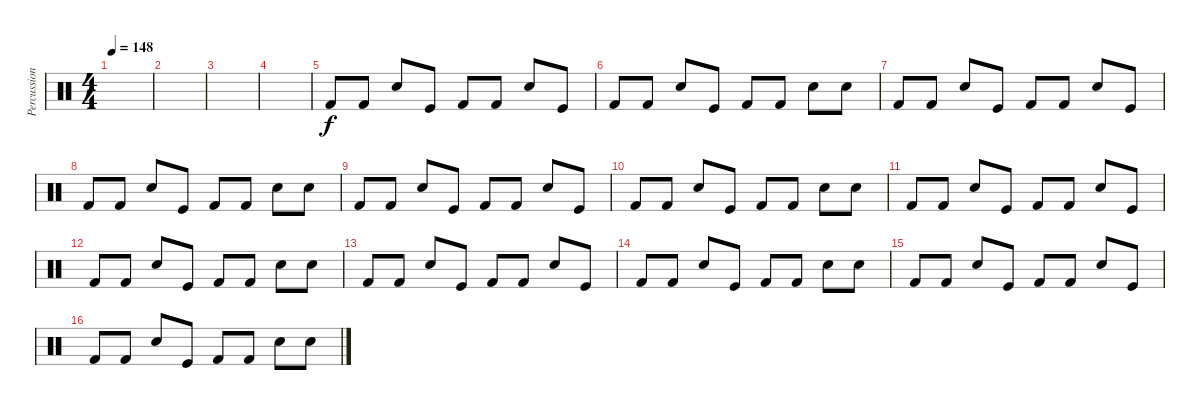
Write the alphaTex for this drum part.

\track ("Percussion" "Percussion") {instrument percussion}
\staff {score}
\articulation defaults
\ts (4 4)
\tempo 148
\clef neutral
\ks c
|
|
|
|
"Kick (hit) 2".8 "Kick (hit) 2".8 "Snare (hit) 2".8 "Kick (hit)".8 "Kick (hit) 2".8 "Kick (hit) 2".8 "Snare (hit) 2".8 "Kick (hit)".8 |
"Kick (hit) 2".8 "Kick (hit) 2".8 "Snare (hit) 2".8 "Kick (hit)".8 "Kick (hit) 2".8 "Kick (hit) 2".8 "Snare (hit) 2".8 "Snare (hit) 2".8 |
"Kick (hit) 2".8 "Kick (hit) 2".8 "Snare (hit) 2".8 "Kick (hit)".8 "Kick (hit) 2".8 "Kick (hit) 2".8 "Snare (hit) 2".8 "Kick (hit)".8 |
"Kick (hit) 2".8 "Kick (hit) 2".8 "Snare (hit) 2".8 "Kick (hit)".8 "Kick (hit) 2".8 "Kick (hit) 2".8 "Snare (hit) 2".8 "Snare (hit) 2".8 |
"Kick (hit) 2".8 "Kick (hit) 2".8 "Snare (hit) 2".8 "Kick (hit)".8 "Kick (hit) 2".8 "Kick (hit) 2".8 "Snare (hit) 2".8 "Kick (hit)".8 |
"Kick (hit) 2".8 "Kick (hit) 2".8 "Snare (hit) 2".8 "Kick (hit)".8 "Kick (hit) 2".8 "Kick (hit) 2".8 "Snare (hit) 2".8 "Snare (hit) 2".8 |
"Kick (hit) 2".8 "Kick (hit) 2".8 "Snare (hit) 2".8 "Kick (hit)".8 "Kick (hit) 2".8 "Kick (hit) 2".8 "Snare (hit) 2".8 "Kick (hit)".8 |
"Kick (hit) 2".8 "Kick (hit) 2".8 "Snare (hit) 2".8 "Kick (hit)".8 "Kick (hit) 2".8 "Kick (hit) 2".8 "Snare (hit) 2".8 "Snare (hit) 2".8 |
"Kick (hit) 2".8 "Kick (hit) 2".8 "Snare (hit) 2".8 "Kick (hit)".8 "Kick (hit) 2".8 "Kick (hit) 2".8 "Snare (hit) 2".8 "Kick (hit)".8 |
"Kick (hit) 2".8 "Kick (hit) 2".8 "Snare (hit) 2".8 "Kick (hit)".8 "Kick (hit) 2".8 "Kick (hit) 2".8 "Snare (hit) 2".8 "Snare (hit) 2".8 |
"Kick (hit) 2".8 "Kick (hit) 2".8 "Snare (hit) 2".8 "Kick (hit)".8 "Kick (hit) 2".8 "Kick (hit) 2".8 "Snare (hit) 2".8 "Kick (hit)".8 |
"Kick (hit) 2".8 "Kick (hit) 2".8 "Snare (hit) 2".8 "Kick (hit)".8 "Kick (hit) 2".8 "Kick (hit) 2".8 "Snare (hit) 2".8 "Snare (hit) 2".8
